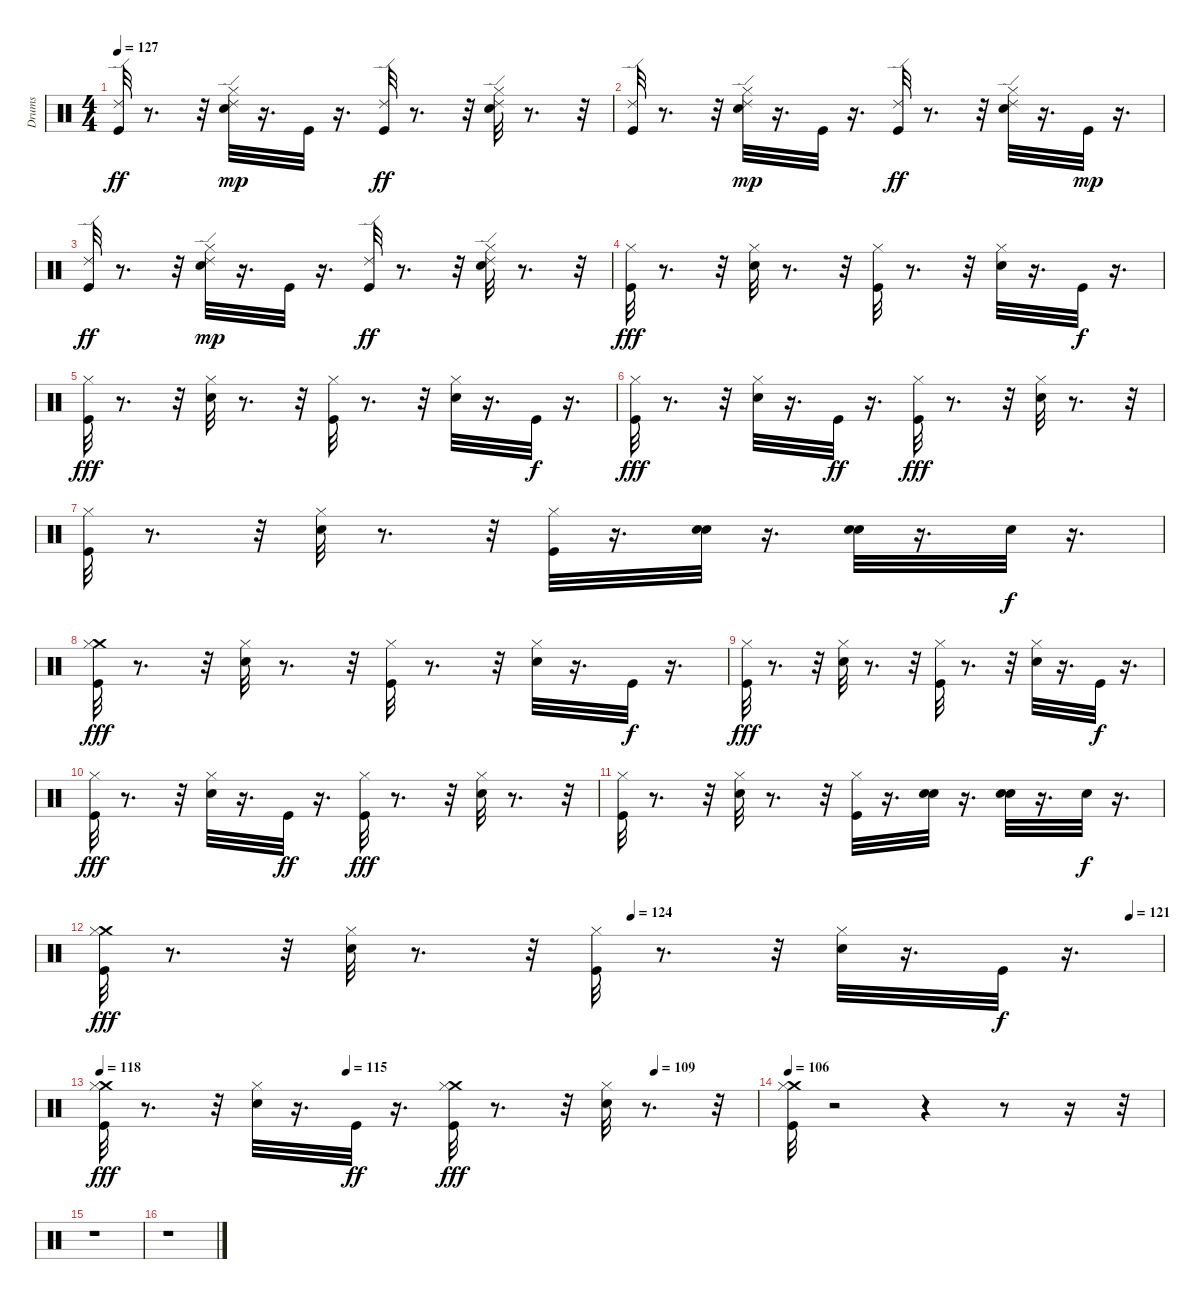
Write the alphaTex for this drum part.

\track (" Drums" " Drums") {instrument percussion}
\staff {score}
\articulation defaults
\ts (4 4)
\tempo 127
\clef neutral
\ks c
("Kick (hit)" "Ride (edge) 2").32{dy ff} r.8{d} r.32 ("Electric Snare (hit)" "Hi-Hat (closed)" "Ride (edge) 2").32{dy mp} r.16{d} "Kick (hit)".32 r.16{d} ("Kick (hit)" "Ride (edge) 2").32{dy ff} r.8{d} r.32 ("Electric Snare (hit)" "Hi-Hat (closed)" "Ride (edge) 2").32 r.8{d} r.32 |
("Kick (hit)" "Ride (edge) 2").32 r.8{d} r.32 ("Electric Snare (hit)" "Hi-Hat (closed)" "Ride (edge) 2").32{dy mp} r.16{d} "Kick (hit)".32 r.16{d} ("Kick (hit)" "Ride (edge) 2").32{dy ff} r.8{d} r.32 ("Electric Snare (hit)" "Hi-Hat (closed)" "Ride (edge) 2").32 r.16{d} "Kick (hit)".32{dy mp} r.16{d} |
("Kick (hit)" "Ride (edge) 2").32{dy ff} r.8{d} r.32 ("Electric Snare (hit)" "Hi-Hat (closed)" "Ride (edge) 2").32{dy mp} r.16{d} "Kick (hit)".32 r.16{d} ("Kick (hit)" "Ride (edge) 2").32{dy ff} r.8{d} r.32 ("Electric Snare (hit)" "Hi-Hat (closed)" "Ride (edge) 2").32 r.8{d} r.32 |
("Kick (hit)" "Hi-Hat (closed)").32{dy fff} r.8{d} r.32 ("Electric Snare (hit)" "Hi-Hat (closed)").32 r.8{d} r.32 ("Kick (hit)" "Hi-Hat (closed)").32 r.8{d} r.32 ("Electric Snare (hit)" "Hi-Hat (closed)").32 r.16{d} "Kick (hit)".32{dy f} r.16{d} |
("Kick (hit)" "Hi-Hat (closed)").32{dy fff} r.8{d} r.32 ("Electric Snare (hit)" "Hi-Hat (closed)").32 r.8{d} r.32 ("Kick (hit)" "Hi-Hat (closed)").32 r.8{d} r.32 ("Electric Snare (hit)" "Hi-Hat (closed)").32 r.16{d} "Kick (hit)".32{dy f} r.16{d} |
("Kick (hit)" "Hi-Hat (closed)").32{dy fff} r.8{d} r.32 ("Electric Snare (hit)" "Hi-Hat (closed)").32 r.16{d} "Kick (hit)".32{dy ff} r.16{d} ("Kick (hit)" "Hi-Hat (closed)").32{dy fff} r.8{d} r.32 ("Hi-Hat (closed)" "Electric Snare (hit)").32 r.8{d} r.32 |
("Kick (hit)" "Hi-Hat (closed)").32 r.8{d} r.32 ("Hi-Hat (closed)" "Electric Snare (hit)").32 r.8{d} r.32 ("Kick (hit)" "Hi-Hat (closed)").32 r.16{d} ("Electric Snare (hit)" "Snare (hit) 2").32 r.16{d} ("Electric Snare (hit)" "Snare (hit) 2").32 r.16{d} "Electric Snare (hit)".32{dy f} r.16{d} |
("Crash medium (hit)" "Kick (hit)" "Hi-Hat (closed)").32{dy fff} r.8{d} r.32 ("Electric Snare (hit)" "Hi-Hat (closed)").32 r.8{d} r.32 ("Kick (hit)" "Hi-Hat (closed)").32 r.8{d} r.32 ("Electric Snare (hit)" "Hi-Hat (closed)").32 r.16{d} "Kick (hit)".32{dy f} r.16{d} |
("Kick (hit)" "Hi-Hat (closed)").32{dy fff} r.8{d} r.32 ("Electric Snare (hit)" "Hi-Hat (closed)").32 r.8{d} r.32 ("Kick (hit)" "Hi-Hat (closed)").32 r.8{d} r.32 ("Electric Snare (hit)" "Hi-Hat (closed)").32 r.16{d} "Kick (hit)".32{dy f} r.16{d} |
("Kick (hit)" "Hi-Hat (closed)").32{dy fff} r.8{d} r.32 ("Electric Snare (hit)" "Hi-Hat (closed)").32 r.16{d} "Kick (hit)".32{dy ff} r.16{d} ("Kick (hit)" "Hi-Hat (closed)").32{dy fff} r.8{d} r.32 ("Hi-Hat (closed)" "Electric Snare (hit)").32 r.8{d} r.32 |
("Kick (hit)" "Hi-Hat (closed)").32 r.8{d} r.32 ("Hi-Hat (closed)" "Electric Snare (hit)").32 r.8{d} r.32 ("Kick (hit)" "Hi-Hat (closed)").32 r.16{d} ("Electric Snare (hit)" "Snare (hit) 2").32 r.16{d} ("Electric Snare (hit)" "Snare (hit) 2").32 r.16{d} "Snare (hit) 2".32{dy f} r.16{d} |
\tempo (124 0.5)
\tempo (121 0.96875)
("Crash medium (hit)" "Kick (hit)" "Hi-Hat (closed)").32{dy fff} r.8{d} r.32 ("Electric Snare (hit)" "Hi-Hat (closed)").32 r.8{d} r.32 ("Kick (hit)" "Hi-Hat (closed)").32 r.8{d} r.32 ("Electric Snare (hit)" "Hi-Hat (closed)").32 r.16{d} "Kick (hit)".32{dy f} r.16{d} |
\tempo 118
\tempo (115 0.375)
\tempo (109 0.84375)
("Crash medium (hit)" "Kick (hit)" "Hi-Hat (closed)").32{dy fff} r.8{d} r.32 ("Electric Snare (hit)" "Hi-Hat (closed)").32 r.16{d} "Kick (hit)".32{dy ff} r.16{d} ("Crash medium (hit)" "Kick (hit)" "Hi-Hat (closed)").32{dy fff} r.8{d} r.32 ("Hi-Hat (closed)" "Electric Snare (hit)").32 r.8{d} r.32 |
\tempo 106
("Crash medium (hit)" "Kick (hit)" "Hi-Hat (closed)").32 r.2 r.4 r.8 r.16 r.32 |
r.1 |
r.1
